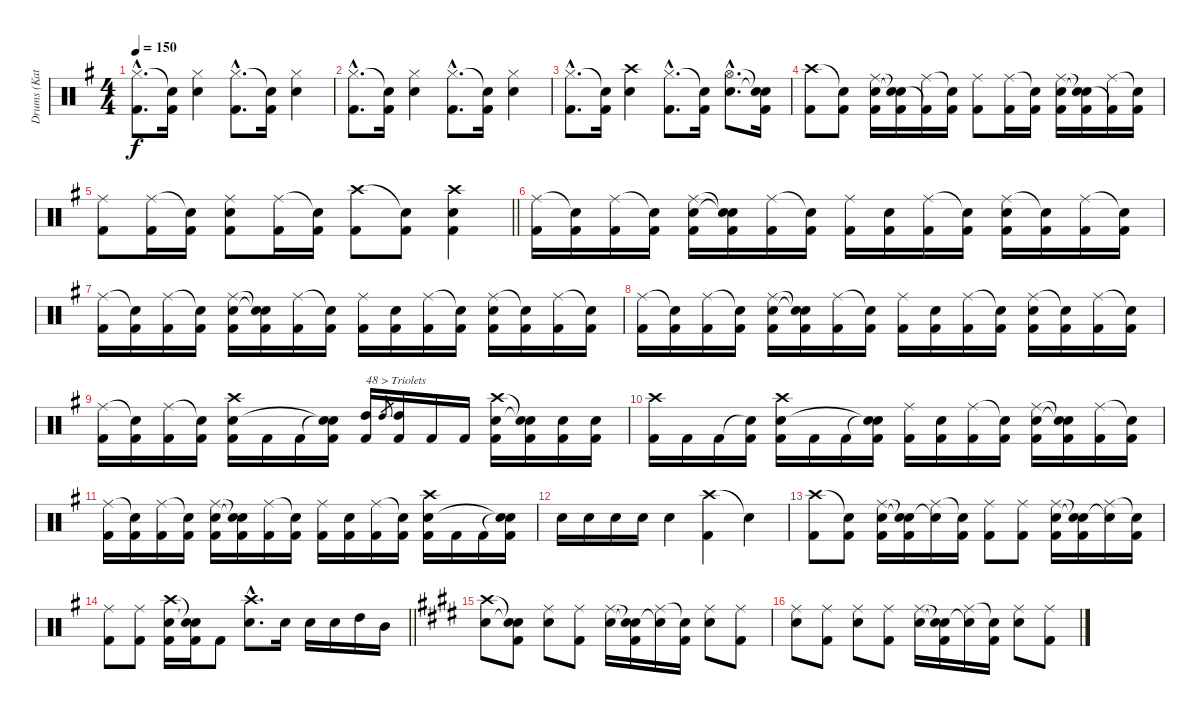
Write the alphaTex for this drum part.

\track ("Drums (Katsuji)" "Drums (Kat") {instrument percussion}
\staff {score}
\articulation defaults
\ts (4 4)
\tempo 150
\clef neutral
\ks g
("Hi-Hat (closed)"{hac} "Kick (hit) 2"{hac}).8{d dy f} ("Snare (hit)"{t} "Kick (hit) 2").16 ("Hi-Hat (closed)" "Snare (hit) 2").4 ("Hi-Hat (closed)"{hac} "Kick (hit) 2"{hac}).8{d} ("Snare (hit)"{t} "Kick (hit) 2").16 ("Hi-Hat (closed)" "Snare (hit) 2").4 |
("Hi-Hat (closed)"{hac} "Kick (hit) 2"{hac}).8{d} ("Snare (hit)"{t} "Kick (hit) 2").16 ("Hi-Hat (closed)" "Snare (hit) 2").4 ("Hi-Hat (closed)"{hac} "Kick (hit) 2"{hac}).8{d} ("Snare (hit)"{t} "Kick (hit) 2").16 ("Hi-Hat (closed)" "Snare (hit) 2").4 |
("Hi-Hat (closed)"{hac} "Kick (hit) 2"{hac}).8{d} ("Snare (hit)"{t} "Kick (hit) 2").16 ("Crash high (hit)" "Snare (hit) 2").4 ("Hi-Hat (closed)"{hac} "Kick (hit) 2"{hac}).8{d} ("Snare (hit)"{t} "Kick (hit) 2").16 ("Hi-Hat (open)"{hac} "Snare (hit) 2"{hac}).8{d} ("Snare (hit)"{t} "Snare (hit)"{t} "Kick (hit) 2").16 |
("Crash high (hit)" "Kick (hit) 2").8 ("Snare (hit)"{t} "Kick (hit) 2").8 ("Ride (middle)" "Snare (hit) 2" "Kick (hit) 2").16 ("Snare (hit)"{t} "Snare (hit)"{t} "Kick (hit) 2").16 ("Ride (middle)" "Kick (hit) 2"{t}).16 ("Snare (hit)"{t} "Kick (hit) 2").16 ("Ride (middle)" "Kick (hit) 2").8 ("Ride (middle)" "Kick (hit) 2").16 ("Snare (hit)"{t} "Kick (hit) 2").16 ("Ride (middle)" "Snare (hit) 2" "Kick (hit) 2").16 ("Snare (hit)"{t} "Snare (hit)"{t} "Kick (hit) 2").16 ("Ride (middle)" "Kick (hit) 2"{t}).16 ("Snare (hit)"{t} "Kick (hit) 2").16 |
\barLineRight lightlight
("Ride (middle)" "Kick (hit) 2").8 ("Ride (middle)" "Kick (hit) 2").16 ("Snare (hit)"{t} "Kick (hit) 2").16 ("Ride (middle)" "Snare (hit) 2" "Kick (hit) 2").8 ("Ride (middle)" "Kick (hit) 2").16 ("Snare (hit)"{t} "Kick (hit) 2").16 ("Crash high (hit)" "Kick (hit) 2").8 ("Snare (hit)"{t} "Kick (hit) 2").8 ("Crash high (hit)" "Snare (hit) 2" "Kick (hit) 2").4 |
("Ride (middle)" "Kick (hit) 2").16 ("Snare (hit)"{t} "Kick (hit) 2").16 ("Ride (middle)" "Kick (hit) 2").16 ("Snare (hit)"{t} "Kick (hit) 2").16 ("Ride (middle)" "Snare (hit) 2" "Kick (hit) 2").16 ("Snare (hit)"{t} "Snare (hit)"{t} "Kick (hit) 2").16 ("Ride (middle)" "Kick (hit) 2").16 ("Snare (hit)"{t} "Kick (hit) 2").16 ("Ride (middle)" "Kick (hit) 2").16 ("Snare (hit) 2" "Kick (hit) 2").16 ("Ride (middle)" "Kick (hit) 2").16 ("Snare (hit)"{t} "Kick (hit) 2").16 ("Ride (middle)" "Snare (hit) 2" "Kick (hit) 2").16 ("Snare (hit)"{t} "Kick (hit) 2").16 ("Ride (middle)" "Kick (hit) 2").16 ("Snare (hit)"{t} "Kick (hit) 2").16 |
("Ride (middle)" "Kick (hit) 2").16 ("Snare (hit)"{t} "Kick (hit) 2").16 ("Ride (middle)" "Kick (hit) 2").16 ("Snare (hit)"{t} "Kick (hit) 2").16 ("Ride (middle)" "Snare (hit) 2" "Kick (hit) 2").16 ("Snare (hit)"{t} "Snare (hit)"{t} "Kick (hit) 2").16 ("Ride (middle)" "Kick (hit) 2").16 ("Snare (hit)"{t} "Kick (hit) 2").16 ("Ride (middle)" "Kick (hit) 2").16 ("Snare (hit) 2" "Kick (hit) 2").16 ("Ride (middle)" "Kick (hit) 2").16 ("Snare (hit)"{t} "Kick (hit) 2").16 ("Ride (middle)" "Snare (hit) 2" "Kick (hit) 2").16 ("Snare (hit)"{t} "Kick (hit) 2").16 ("Ride (middle)" "Kick (hit) 2").16 ("Snare (hit)"{t} "Kick (hit) 2").16 |
("Ride (middle)" "Kick (hit) 2").16 ("Snare (hit)"{t} "Kick (hit) 2").16 ("Ride (middle)" "Kick (hit) 2").16 ("Snare (hit)"{t} "Kick (hit) 2").16 ("Ride (middle)" "Snare (hit) 2" "Kick (hit) 2").16 ("Snare (hit)"{t} "Snare (hit)"{t} "Kick (hit) 2").16 ("Ride (middle)" "Kick (hit) 2").16 ("Snare (hit)"{t} "Kick (hit) 2").16 ("Ride (middle)" "Kick (hit) 2").16 ("Snare (hit) 2" "Kick (hit) 2").16 ("Ride (middle)" "Kick (hit) 2").16 ("Snare (hit)"{t} "Kick (hit) 2").16 ("Ride (middle)" "Snare (hit) 2" "Kick (hit) 2").16 ("Snare (hit)"{t} "Kick (hit) 2").16 ("Ride (middle)" "Kick (hit) 2").16 ("Snare (hit)"{t} "Kick (hit) 2").16 |
("Ride (middle)" "Kick (hit) 2").16 ("Snare (hit)"{t} "Kick (hit) 2").16 ("Ride (middle)" "Kick (hit) 2").16 ("Snare (hit)"{t} "Kick (hit) 2").16 ("Crash high (hit)" "Snare (hit) 2" "Kick (hit) 2").16 "Kick (hit) 2".16 "Kick (hit) 2".16 ("Snare (hit)"{t} "Snare (hit)"{t} "Kick (hit) 2").16 ("High Tom (hit)" "Kick (hit) 2").16{txt "48 > Triolets"} "High Tom (hit)".8{gr} ("High Tom (hit)" "Kick (hit) 2").16 "Kick (hit) 2".16 "Kick (hit) 2".16 ("Crash high (hit)" "Snare (hit) 2" "Kick (hit) 2").16 ("Snare (hit)"{t} "Snare (hit)"{t} "Kick (hit) 2").16 ("Snare (hit) 2" "Kick (hit) 2").16 ("Snare (hit) 2" "Kick (hit) 2").16 |
("Crash high (hit)" "Kick (hit) 2").16 "Kick (hit) 2".16 "Kick (hit) 2".16 ("Snare (hit)"{t} "Kick (hit) 2").16 ("Crash high (hit)" "Snare (hit) 2" "Kick (hit) 2").16 "Kick (hit) 2".16 "Kick (hit) 2".16 ("Snare (hit)"{t} "Snare (hit)"{t} "Kick (hit) 2").16 ("Ride (middle)" "Kick (hit) 2").16 ("Snare (hit) 2" "Kick (hit) 2").16 ("Ride (middle)" "Kick (hit) 2").16 ("Snare (hit)"{t} "Kick (hit) 2").16 ("Ride (middle)" "Snare (hit) 2" "Kick (hit) 2").16 ("Snare (hit)"{t} "Snare (hit)"{t} "Kick (hit) 2").16 ("Ride (middle)" "Kick (hit) 2").16 ("Snare (hit)"{t} "Kick (hit) 2").16 |
("Ride (middle)" "Kick (hit) 2").16 ("Snare (hit)"{t} "Kick (hit) 2").16 ("Ride (middle)" "Kick (hit) 2").16 ("Snare (hit)"{t} "Kick (hit) 2").16 ("Ride (middle)" "Snare (hit) 2" "Kick (hit) 2").16 ("Snare (hit)"{t} "Snare (hit)"{t} "Kick (hit) 2").16 ("Ride (middle)" "Kick (hit) 2").16 ("Snare (hit)"{t} "Kick (hit) 2").16 ("Ride (middle)" "Kick (hit) 2").16 ("Snare (hit) 2" "Kick (hit) 2").16 ("Ride (middle)" "Kick (hit) 2").16 ("Snare (hit)"{t} "Kick (hit) 2").16 ("Crash high (hit)" "Snare (hit) 2" "Kick (hit) 2").16 "Kick (hit) 2".16 "Kick (hit) 2".16 ("Snare (hit)"{t} "Snare (hit)"{t} "Kick (hit) 2").16 |
"Snare (hit) 2".16 "Snare (hit) 2".16 "Snare (hit) 2".16 "Snare (hit) 2".16 "Snare (hit) 2".4 ("Crash high (hit)" "Kick (hit) 2").4 "Snare (hit)"{t}.4 |
("Crash high (hit)" "Kick (hit) 2").8 ("Snare (hit)"{t} "Kick (hit) 2").8 ("Ride (middle)" "Snare (hit) 2" "Kick (hit) 2").16 ("Snare (hit)"{t} "Snare (hit)"{t} "Kick (hit) 2").16 ("Ride (middle)" "Snare (hit)"{t}).16 ("Snare (hit)"{t} "Kick (hit) 2").16 ("Ride (middle)" "Kick (hit) 2").8 ("Ride (middle)" "Kick (hit) 2").8 ("Ride (middle)" "Snare (hit) 2" "Kick (hit) 2").16 ("Snare (hit)"{t} "Snare (hit)"{t} "Kick (hit) 2").16 ("Ride (middle)" "Snare (hit)"{t}).16 ("Snare (hit)"{t} "Kick (hit) 2").16 |
\barLineRight lightlight
("Ride (middle)" "Kick (hit) 2").8 ("Ride (middle)" "Kick (hit) 2").8 ("Crash high (hit)" "Snare (hit) 2" "Kick (hit) 2").16 ("Snare (hit)"{t} "Snare (hit)"{t} "Kick (hit) 2").16 "Kick (hit) 2".8 ("Crash high (hit)"{hac} "Snare (hit) 2"{hac}).8{d} "Snare (hit) 2".16 "Snare (hit) 2".16 "Snare (hit) 2".16 "High Tom (hit)".16 "Mid Tom (hit)".16 |
\ks e
("Crash high (hit)" "Snare (hit) 2").8 ("Snare (hit)"{t} "Snare (hit)"{t} "Kick (hit) 2").8 ("Ride (middle)" "Snare (hit) 2").8 ("Ride (middle)" "Kick (hit) 2").8 ("Ride (middle)" "Snare (hit) 2").16 ("Snare (hit)"{t} "Snare (hit)"{t} "Kick (hit) 2").16 ("Ride (middle)" "Snare (hit)"{t}).16 ("Snare (hit)"{t} "Kick (hit) 2").16 ("Ride (middle)" "Snare (hit) 2").8 ("Ride (middle)" "Kick (hit) 2").8 |
("Ride (middle)" "Snare (hit) 2").8 ("Ride (middle)" "Kick (hit) 2").8 ("Ride (middle)" "Snare (hit) 2").8 ("Ride (middle)" "Kick (hit) 2").8 ("Ride (middle)" "Snare (hit) 2").16 ("Snare (hit)"{t} "Snare (hit)"{t} "Kick (hit) 2").16 ("Ride (middle)" "Snare (hit)"{t}).16 ("Snare (hit)"{t} "Kick (hit) 2").16 ("Ride (middle)" "Snare (hit) 2").8 ("Ride (middle)" "Kick (hit) 2").8
